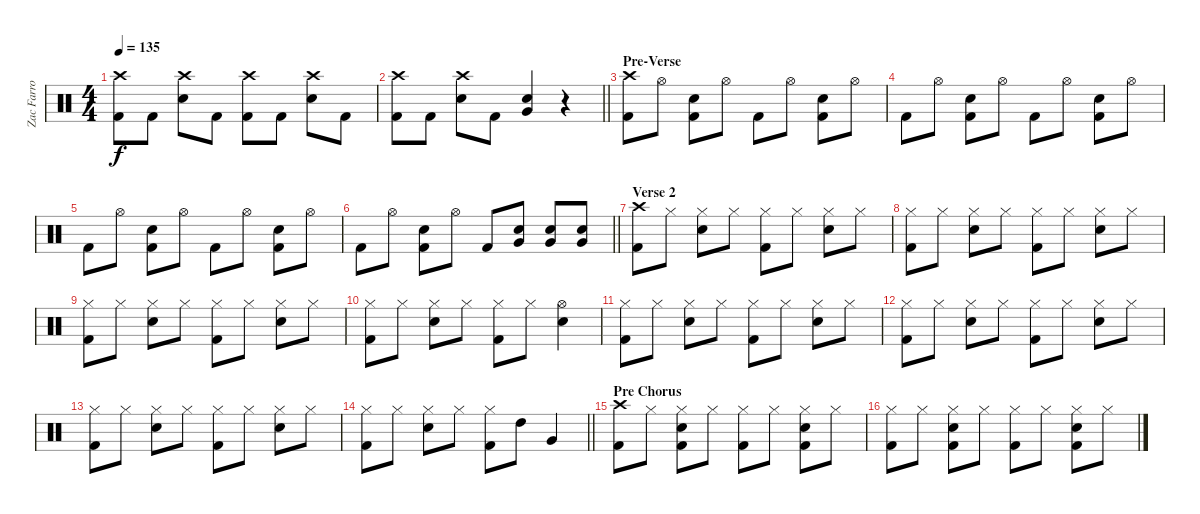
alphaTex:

\track ("Zac Farro (Percussion)" "Zac Farro ") {instrument percussion}
\staff {score}
\articulation defaults
\ts (4 4)
\tempo 135
\clef neutral
\ks c
("Crash high (hit)" "Kick (hit) 2").8{dy f} "Kick (hit) 2".8 ("Crash high (hit)" "Snare (hit) 2").8 "Kick (hit) 2".8 ("Crash high (hit)" "Kick (hit) 2").8 "Kick (hit) 2".8 ("Crash high (hit)" "Snare (hit) 2").8 "Kick (hit) 2".8 |
\barLineRight lightlight
("Crash high (hit)" "Kick (hit) 2").8 "Kick (hit) 2".8 ("Crash high (hit)" "Snare (hit) 2").8 "Kick (hit) 2".8 ("Snare (hit) 2" "Very Low Tom (hit)").4 r.4 |
\section ("" "Pre-Verse")
("Crash high (hit)" "Kick (hit) 2").8 "Hi-Hat (open)".8 ("Snare (hit) 2" "Kick (hit) 2").8 "Hi-Hat (open)".8 "Kick (hit) 2".8 "Hi-Hat (open)".8 ("Snare (hit) 2" "Kick (hit) 2").8 "Hi-Hat (open)".8 |
"Kick (hit) 2".8 "Hi-Hat (open)".8 ("Snare (hit) 2" "Kick (hit) 2").8 "Hi-Hat (open)".8 "Kick (hit) 2".8 "Hi-Hat (open)".8 ("Snare (hit) 2" "Kick (hit) 2").8 "Hi-Hat (open)".8 |
"Kick (hit) 2".8 "Hi-Hat (open)".8 ("Snare (hit) 2" "Kick (hit) 2").8 "Hi-Hat (open)".8 "Kick (hit) 2".8 "Hi-Hat (open)".8 ("Snare (hit) 2" "Kick (hit) 2").8 "Hi-Hat (open)".8 |
\barLineRight lightlight "Kick (hit) 2".8 "Hi-Hat (open)".8
("Snare (hit) 2" "Kick (hit) 2").8 "Hi-Hat (open)".8 "Kick (hit) 2".8 ("Snare (hit) 2" "Very Low Tom (hit)").8 ("Snare (hit) 2" "Very Low Tom (hit)").8 ("Snare (hit) 2" "Very Low Tom (hit)").8 |
\section ("" "Verse 2")
("Crash high (hit)" "Kick (hit) 2").8 "Hi-Hat (closed)".8 ("Hi-Hat (closed)" "Snare (hit) 2").8 "Hi-Hat (closed)".8 ("Hi-Hat (closed)" "Kick (hit) 2").8 "Hi-Hat (closed)".8 ("Hi-Hat (closed)" "Snare (hit) 2").8 "Hi-Hat (closed)".8 |
("Hi-Hat (closed)" "Kick (hit) 2").8 "Hi-Hat (closed)".8 ("Hi-Hat (closed)" "Snare (hit) 2").8 "Hi-Hat (closed)".8 ("Hi-Hat (closed)" "Kick (hit) 2").8 "Hi-Hat (closed)".8 ("Hi-Hat (closed)" "Snare (hit) 2").8 "Hi-Hat (closed)".8 |
("Hi-Hat (closed)" "Kick (hit) 2").8 "Hi-Hat (closed)".8 ("Hi-Hat (closed)" "Snare (hit) 2").8 "Hi-Hat (closed)".8 ("Hi-Hat (closed)" "Kick (hit) 2").8 "Hi-Hat (closed)".8 ("Hi-Hat (closed)" "Snare (hit) 2").8 "Hi-Hat (closed)".8 |
("Hi-Hat (closed)" "Kick (hit) 2").8 "Hi-Hat (closed)".8 ("Hi-Hat (closed)" "Snare (hit) 2").8 "Hi-Hat (closed)".8 ("Hi-Hat (closed)" "Kick (hit) 2").8 "Hi-Hat (closed)".8 ("Hi-Hat (open)" "Snare (hit) 2").4 |
("Hi-Hat (closed)" "Kick (hit) 2").8 "Hi-Hat (closed)".8 ("Hi-Hat (closed)" "Snare (hit) 2").8 "Hi-Hat (closed)".8 ("Hi-Hat (closed)" "Kick (hit) 2").8 "Hi-Hat (closed)".8 ("Hi-Hat (closed)" "Snare (hit) 2").8 "Hi-Hat (closed)".8 |
("Hi-Hat (closed)" "Kick (hit) 2").8 "Hi-Hat (closed)".8 ("Hi-Hat (closed)" "Snare (hit) 2").8 "Hi-Hat (closed)".8 ("Hi-Hat (closed)" "Kick (hit) 2").8 "Hi-Hat (closed)".8 ("Hi-Hat (closed)" "Snare (hit) 2").8 "Hi-Hat (closed)".8 |
("Hi-Hat (closed)" "Kick (hit) 2").8 "Hi-Hat (closed)".8 ("Hi-Hat (closed)" "Snare (hit) 2").8 "Hi-Hat (closed)".8 ("Hi-Hat (closed)" "Kick (hit) 2").8 "Hi-Hat (closed)".8 ("Hi-Hat (closed)" "Snare (hit) 2").8 "Hi-Hat (closed)".8 |
\barLineRight lightlight
("Hi-Hat (closed)" "Kick (hit) 2").8 "Hi-Hat (closed)".8 ("Hi-Hat (closed)" "Snare (hit) 2").8 "Hi-Hat (closed)".8 ("Hi-Hat (closed)" "Kick (hit) 2").8 "High Tom (hit)".8 "Very Low Tom (hit)".4 |
\section ("" "Pre Chorus")
("Crash high (hit)" "Kick (hit) 2").8 "Hi-Hat (closed)".8 ("Hi-Hat (closed)" "Snare (hit) 2" "Kick (hit) 2").8 "Hi-Hat (closed)".8 ("Hi-Hat (closed)" "Kick (hit) 2").8 "Hi-Hat (closed)".8 ("Hi-Hat (closed)" "Snare (hit) 2" "Kick (hit) 2").8 "Hi-Hat (closed)".8 |
("Hi-Hat (closed)" "Kick (hit) 2").8 "Hi-Hat (closed)".8 ("Hi-Hat (closed)" "Snare (hit) 2" "Kick (hit) 2").8 "Hi-Hat (closed)".8 ("Hi-Hat (closed)" "Kick (hit) 2").8 "Hi-Hat (closed)".8 ("Hi-Hat (closed)" "Snare (hit) 2" "Kick (hit) 2").8 "Hi-Hat (closed)".8
